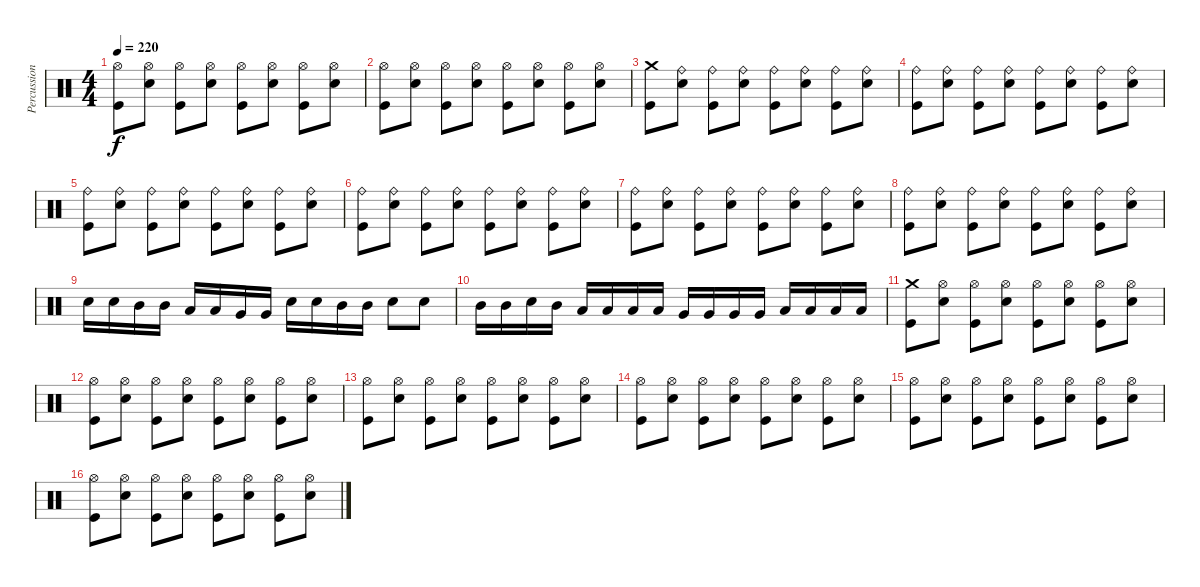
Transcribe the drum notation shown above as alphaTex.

\track ("Percussions" "Percussion") {instrument percussion}
\staff {score}
\articulation defaults
\ts (4 4)
\tempo 220
\clef neutral
\ks c
("Kick (hit)" "Hi-Hat (open)").8{dy f} ("Electric Snare (hit)" "Hi-Hat (open)").8 ("Kick (hit)" "Hi-Hat (open)").8 ("Electric Snare (hit)" "Hi-Hat (open)").8 ("Kick (hit)" "Hi-Hat (open)").8 ("Electric Snare (hit)" "Hi-Hat (open)").8 ("Kick (hit)" "Hi-Hat (open)").8 ("Electric Snare (hit)" "Hi-Hat (open)").8 |
("Kick (hit)" "Hi-Hat (open)").8 ("Electric Snare (hit)" "Hi-Hat (open)").8 ("Kick (hit)" "Hi-Hat (open)").8 ("Electric Snare (hit)" "Hi-Hat (open)").8 ("Kick (hit)" "Hi-Hat (open)").8 ("Electric Snare (hit)" "Hi-Hat (open)").8 ("Kick (hit)" "Hi-Hat (open)").8 ("Electric Snare (hit)" "Hi-Hat (open)").8 |
("Kick (hit)" "Crash medium (hit)").8 ("Electric Snare (hit)" "Ride (bell)").8 ("Kick (hit)" "Ride (bell)").8 ("Electric Snare (hit)" "Ride (bell)").8 ("Kick (hit)" "Ride (bell)").8 ("Electric Snare (hit)" "Ride (bell)").8 ("Kick (hit)" "Ride (bell)").8 ("Electric Snare (hit)" "Ride (bell)").8 |
("Kick (hit)" "Ride (bell)").8 ("Electric Snare (hit)" "Ride (bell)").8 ("Kick (hit)" "Ride (bell)").8 ("Electric Snare (hit)" "Ride (bell)").8 ("Kick (hit)" "Ride (bell)").8 ("Electric Snare (hit)" "Ride (bell)").8 ("Kick (hit)" "Ride (bell)").8 ("Electric Snare (hit)" "Ride (bell)").8 |
("Kick (hit)" "Ride (bell)").8 ("Electric Snare (hit)" "Ride (bell)").8 ("Kick (hit)" "Ride (bell)").8 ("Electric Snare (hit)" "Ride (bell)").8 ("Kick (hit)" "Ride (bell)").8 ("Electric Snare (hit)" "Ride (bell)").8 ("Kick (hit)" "Ride (bell)").8 ("Electric Snare (hit)" "Ride (bell)").8 |
("Kick (hit)" "Ride (bell)").8 ("Electric Snare (hit)" "Ride (bell)").8 ("Kick (hit)" "Ride (bell)").8 ("Electric Snare (hit)" "Ride (bell)").8 ("Kick (hit)" "Ride (bell)").8 ("Electric Snare (hit)" "Ride (bell)").8 ("Kick (hit)" "Ride (bell)").8 ("Electric Snare (hit)" "Ride (bell)").8 |
("Kick (hit)" "Ride (bell)").8 ("Electric Snare (hit)" "Ride (bell)").8 ("Kick (hit)" "Ride (bell)").8 ("Electric Snare (hit)" "Ride (bell)").8 ("Kick (hit)" "Ride (bell)").8 ("Electric Snare (hit)" "Ride (bell)").8 ("Kick (hit)" "Ride (bell)").8 ("Electric Snare (hit)" "Ride (bell)").8 |
("Kick (hit)" "Ride (bell)").8 ("Electric Snare (hit)" "Ride (bell)").8 ("Kick (hit)" "Ride (bell)").8 ("Electric Snare (hit)" "Ride (bell)").8 ("Kick (hit)" "Ride (bell)").8 ("Electric Snare (hit)" "Ride (bell)").8 ("Kick (hit)" "Ride (bell)").8 ("Electric Snare (hit)" "Ride (bell)").8 |
"Electric Snare (hit)".16 "Electric Snare (hit)".16 "Mid Tom (hit)".16 "Mid Tom (hit)".16 "Low Tom (hit)".16 "Low Tom (hit)".16 "Very Low Tom (hit)".16 "Very Low Tom (hit)".16 "Electric Snare (hit)".16 "Electric Snare (hit)".16 "Mid Tom (hit)".16 "Mid Tom (hit)".16 "Electric Snare (hit)".8 "Electric Snare (hit)".8 |
"Mid Tom (hit)".16 "Mid Tom (hit)".16 "Electric Snare (hit)".16 "Mid Tom (hit)".16 "Low Tom (hit)".16 "Low Tom (hit)".16 "Low Tom (hit)".16 "Low Tom (hit)".16 "Very Low Tom (hit)".16 "Very Low Tom (hit)".16 "Very Low Tom (hit)".16 "Very Low Tom (hit)".16 "Low Floor Tom (hit)".16 "Low Floor Tom (hit)".16 "Low Floor Tom (hit)".16 "Low Floor Tom (hit)".16 |
("Kick (hit)" "Crash medium (hit)").8 ("Electric Snare (hit)" "Hi-Hat (open)").8 ("Kick (hit)" "Hi-Hat (open)").8 ("Electric Snare (hit)" "Hi-Hat (open)").8 ("Kick (hit)" "Hi-Hat (open)").8 ("Electric Snare (hit)" "Hi-Hat (open)").8 ("Kick (hit)" "Hi-Hat (open)").8 ("Electric Snare (hit)" "Hi-Hat (open)").8 |
("Kick (hit)" "Hi-Hat (open)").8 ("Electric Snare (hit)" "Hi-Hat (open)").8 ("Kick (hit)" "Hi-Hat (open)").8 ("Electric Snare (hit)" "Hi-Hat (open)").8 ("Kick (hit)" "Hi-Hat (open)").8 ("Electric Snare (hit)" "Hi-Hat (open)").8 ("Kick (hit)" "Hi-Hat (open)").8 ("Electric Snare (hit)" "Hi-Hat (open)").8 |
("Kick (hit)" "Hi-Hat (open)").8 ("Electric Snare (hit)" "Hi-Hat (open)").8 ("Kick (hit)" "Hi-Hat (open)").8 ("Electric Snare (hit)" "Hi-Hat (open)").8 ("Kick (hit)" "Hi-Hat (open)").8 ("Electric Snare (hit)" "Hi-Hat (open)").8 ("Kick (hit)" "Hi-Hat (open)").8 ("Electric Snare (hit)" "Hi-Hat (open)").8 |
("Kick (hit)" "Hi-Hat (open)").8 ("Electric Snare (hit)" "Hi-Hat (open)").8 ("Kick (hit)" "Hi-Hat (open)").8 ("Electric Snare (hit)" "Hi-Hat (open)").8 ("Kick (hit)" "Hi-Hat (open)").8 ("Electric Snare (hit)" "Hi-Hat (open)").8 ("Kick (hit)" "Hi-Hat (open)").8 ("Electric Snare (hit)" "Hi-Hat (open)").8 |
("Kick (hit)" "Hi-Hat (open)").8 ("Electric Snare (hit)" "Hi-Hat (open)").8 ("Kick (hit)" "Hi-Hat (open)").8 ("Electric Snare (hit)" "Hi-Hat (open)").8 ("Kick (hit)" "Hi-Hat (open)").8 ("Electric Snare (hit)" "Hi-Hat (open)").8 ("Kick (hit)" "Hi-Hat (open)").8 ("Electric Snare (hit)" "Hi-Hat (open)").8 |
("Kick (hit)" "Hi-Hat (open)").8 ("Electric Snare (hit)" "Hi-Hat (open)").8 ("Kick (hit)" "Hi-Hat (open)").8 ("Electric Snare (hit)" "Hi-Hat (open)").8 ("Kick (hit)" "Hi-Hat (open)").8 ("Electric Snare (hit)" "Hi-Hat (open)").8 ("Kick (hit)" "Hi-Hat (open)").8 ("Electric Snare (hit)" "Hi-Hat (open)").8
